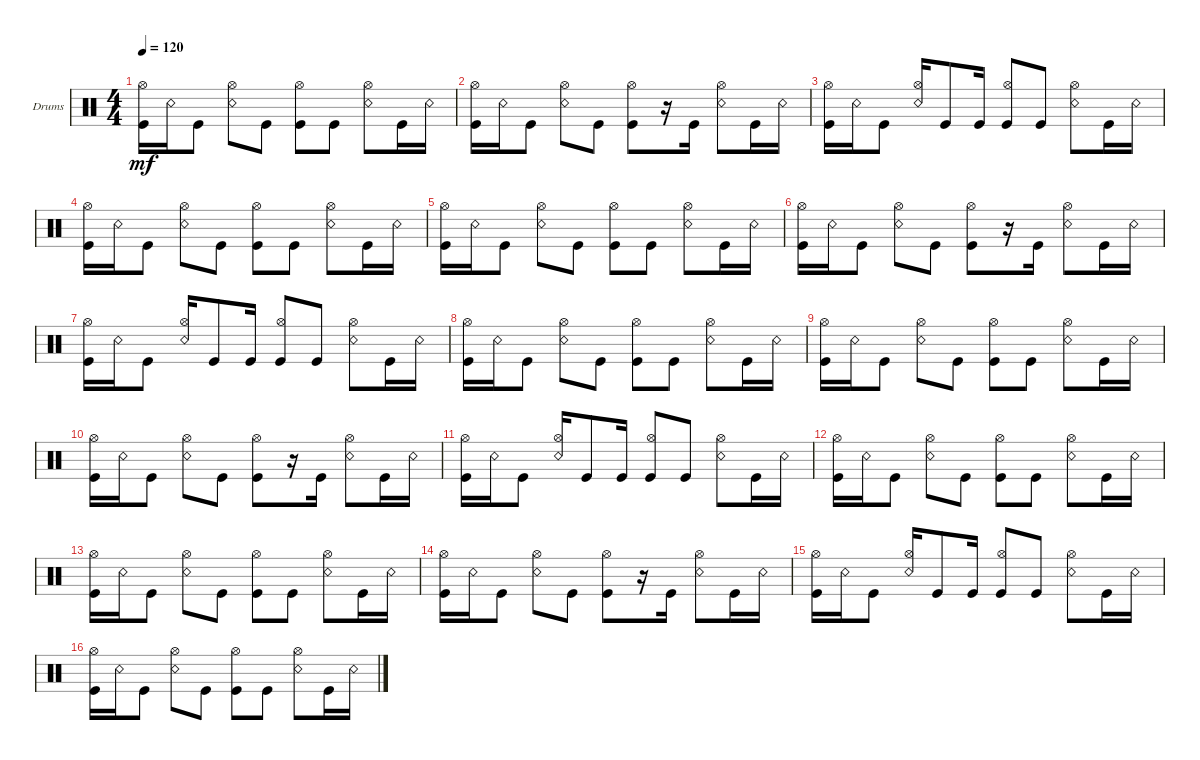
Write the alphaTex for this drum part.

\defaultSystemsLayout 4
\bracketExtendMode groupsimilarinstruments
\firstSystemTrackNameOrientation horizontal
\otherSystemsTrackNameOrientation horizontal
\track ("Drumkit" "Drums") {instrument percussion}
\staff {score}
\articulation defaults
\ts (4 4)
\tempo 120
\clef neutral
\scale
0.333333
\ks c
("Kick (hit)" "Hi-Hat (open)").16{dy mf} "Snare (rim shot)".16 "Kick (hit)".8 ("Hi-Hat (open)" "Snare (rim shot)").8 "Kick (hit)".8 ("Kick (hit)" "Hi-Hat (open)").8 "Kick (hit)".8 ("Hi-Hat (open)" "Snare (rim shot)").8 "Kick (hit)".16 "Snare (rim shot)".16 |
\scale
0.333333 ("Kick (hit)" "Hi-Hat (open)").16 "Snare (rim shot)".16 "Kick (hit)".8 ("Hi-Hat (open)" "Snare (rim shot)").8 "Kick (hit)".8 ("Kick (hit)" "Hi-Hat (open)").8 r.16 "Kick (hit)".16 ("Hi-Hat (open)" "Snare (rim shot)").8 "Kick (hit)".16 "Snare (rim shot)".16 |
\scale
0.333333 ("Hi-Hat (open)" "Kick (hit)").16 "Snare (rim shot)".16 "Kick (hit)".8 ("Hi-Hat (open)" "Snare (rim shot)").16 "Kick (hit)".8 "Kick (hit)".16 ("Hi-Hat (open)" "Kick (hit)").8{beam invert} "Kick (hit)".8 ("Hi-Hat (open)" "Snare (rim shot)").8 "Kick (hit)".16 "Snare (rim shot)".16 |
\scale
0.333333 ("Kick (hit)" "Hi-Hat (open)").16 "Snare (rim shot)".16 "Kick (hit)".8 ("Hi-Hat (open)" "Snare (rim shot)").8 "Kick (hit)".8 ("Kick (hit)" "Hi-Hat (open)").8 "Kick (hit)".8 ("Hi-Hat (open)" "Snare (rim shot)").8 "Kick (hit)".16 "Snare (rim shot)".16 |
\scale
0.333333 ("Kick (hit)" "Hi-Hat (open)").16 "Snare (rim shot)".16 "Kick (hit)".8 ("Hi-Hat (open)" "Snare (rim shot)").8 "Kick (hit)".8 ("Kick (hit)" "Hi-Hat (open)").8 "Kick (hit)".8 ("Hi-Hat (open)" "Snare (rim shot)").8 "Kick (hit)".16 "Snare (rim shot)".16 |
\scale
0.333333 ("Kick (hit)" "Hi-Hat (open)").16 "Snare (rim shot)".16 "Kick (hit)".8 ("Hi-Hat (open)" "Snare (rim shot)").8 "Kick (hit)".8 ("Kick (hit)" "Hi-Hat (open)").8 r.16 "Kick (hit)".16 ("Hi-Hat (open)" "Snare (rim shot)").8 "Kick (hit)".16 "Snare (rim shot)".16 |
\scale
0.333333 ("Hi-Hat (open)" "Kick (hit)").16 "Snare (rim shot)".16 "Kick (hit)".8 ("Hi-Hat (open)" "Snare (rim shot)").16 "Kick (hit)".8 "Kick (hit)".16 ("Hi-Hat (open)" "Kick (hit)").8{beam invert} "Kick (hit)".8 ("Hi-Hat (open)" "Snare (rim shot)").8 "Kick (hit)".16 "Snare (rim shot)".16 |
\scale
0.333333 ("Kick (hit)" "Hi-Hat (open)").16 "Snare (rim shot)".16 "Kick (hit)".8 ("Hi-Hat (open)" "Snare (rim shot)").8 "Kick (hit)".8 ("Kick (hit)" "Hi-Hat (open)").8 "Kick (hit)".8 ("Hi-Hat (open)" "Snare (rim shot)").8 "Kick (hit)".16 "Snare (rim shot)".16 |
\scale
0.333333 ("Kick (hit)" "Hi-Hat (open)").16 "Snare (rim shot)".16 "Kick (hit)".8 ("Hi-Hat (open)" "Snare (rim shot)").8 "Kick (hit)".8 ("Kick (hit)" "Hi-Hat (open)").8 "Kick (hit)".8 ("Hi-Hat (open)" "Snare (rim shot)").8 "Kick (hit)".16 "Snare (rim shot)".16 |
\scale
0.333333 ("Kick (hit)" "Hi-Hat (open)").16 "Snare (rim shot)".16 "Kick (hit)".8 ("Hi-Hat (open)" "Snare (rim shot)").8 "Kick (hit)".8 ("Kick (hit)" "Hi-Hat (open)").8 r.16 "Kick (hit)".16 ("Hi-Hat (open)" "Snare (rim shot)").8 "Kick (hit)".16 "Snare (rim shot)".16 |
\scale
0.333333 ("Hi-Hat (open)" "Kick (hit)").16 "Snare (rim shot)".16 "Kick (hit)".8 ("Hi-Hat (open)" "Snare (rim shot)").16 "Kick (hit)".8 "Kick (hit)".16 ("Hi-Hat (open)" "Kick (hit)").8{beam invert} "Kick (hit)".8 ("Hi-Hat (open)" "Snare (rim shot)").8 "Kick (hit)".16 "Snare (rim shot)".16 |
\scale
0.333333 ("Kick (hit)" "Hi-Hat (open)").16 "Snare (rim shot)".16 "Kick (hit)".8 ("Hi-Hat (open)" "Snare (rim shot)").8 "Kick (hit)".8 ("Kick (hit)" "Hi-Hat (open)").8 "Kick (hit)".8 ("Hi-Hat (open)" "Snare (rim shot)").8 "Kick (hit)".16 "Snare (rim shot)".16 |
\scale
0.333333 ("Kick (hit)" "Hi-Hat (open)").16 "Snare (rim shot)".16 "Kick (hit)".8 ("Hi-Hat (open)" "Snare (rim shot)").8 "Kick (hit)".8 ("Kick (hit)" "Hi-Hat (open)").8 "Kick (hit)".8 ("Hi-Hat (open)" "Snare (rim shot)").8 "Kick (hit)".16 "Snare (rim shot)".16 |
\scale
0.333333 ("Kick (hit)" "Hi-Hat (open)").16 "Snare (rim shot)".16 "Kick (hit)".8 ("Hi-Hat (open)" "Snare (rim shot)").8 "Kick (hit)".8 ("Kick (hit)" "Hi-Hat (open)").8 r.16 "Kick (hit)".16 ("Hi-Hat (open)" "Snare (rim shot)").8 "Kick (hit)".16 "Snare (rim shot)".16 |
\scale
0.333333 ("Hi-Hat (open)" "Kick (hit)").16 "Snare (rim shot)".16 "Kick (hit)".8 ("Hi-Hat (open)" "Snare (rim shot)").16 "Kick (hit)".8 "Kick (hit)".16 ("Hi-Hat (open)" "Kick (hit)").8{beam invert} "Kick (hit)".8 ("Hi-Hat (open)" "Snare (rim shot)").8 "Kick (hit)".16 "Snare (rim shot)".16 |
\scale
0.333333 ("Kick (hit)" "Hi-Hat (open)").16 "Snare (rim shot)".16 "Kick (hit)".8 ("Hi-Hat (open)" "Snare (rim shot)").8 "Kick (hit)".8 ("Kick (hit)" "Hi-Hat (open)").8 "Kick (hit)".8 ("Hi-Hat (open)" "Snare (rim shot)").8 "Kick (hit)".16 "Snare (rim shot)".16
